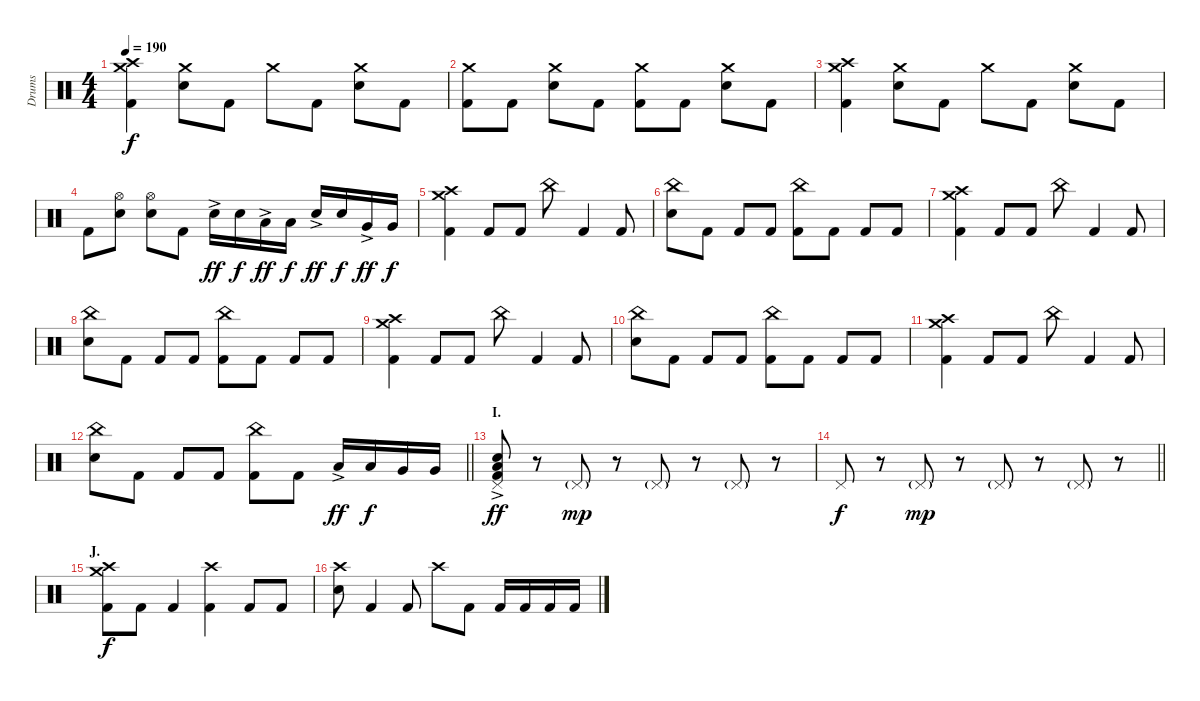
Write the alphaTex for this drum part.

\track ("Drums" "Drums") {instrument percussion}
\staff {score}
\articulation defaults
\ts (4 4)
\tempo 190
\clef neutral
\ks c
("Crash medium (hit)" "Crash high (hit)" "Kick (hit) 2").4{dy f} ("Crash medium (hit)" "Electric Snare (hit)").8 "Kick (hit) 2".8 "Crash medium (hit)".8 "Kick (hit) 2".8 ("Crash medium (hit)" "Electric Snare (hit)").8 "Kick (hit) 2".8 |
("Crash medium (hit)" "Kick (hit) 2").8 "Kick (hit) 2".8 ("Crash medium (hit)" "Electric Snare (hit)").8 "Kick (hit) 2".8 ("Crash medium (hit)" "Kick (hit) 2").8 "Kick (hit) 2".8 ("Crash medium (hit)" "Electric Snare (hit)").8 "Kick (hit) 2".8 |
("Crash medium (hit)" "Crash high (hit)" "Kick (hit) 2").4 ("Crash medium (hit)" "Electric Snare (hit)").8 "Kick (hit) 2".8 "Crash medium (hit)".8 "Kick (hit) 2".8 ("Crash medium (hit)" "Electric Snare (hit)").8 "Kick (hit) 2".8 |
"Kick (hit) 2".8 ("Hi-Hat (open)" "Electric Snare (hit)").8 ("Hi-Hat (open)" "Electric Snare (hit)").8 "Kick (hit) 2".8 "Electric Snare (hit)"{ac}.16{dy ff} "Electric Snare (hit)".16{dy f} "Low Tom (hit)"{ac}.16{dy ff} "Low Tom (hit)".16{dy f} "Electric Snare (hit)"{ac}.16{dy ff} "Electric Snare (hit)".16{dy f} "Very Low Tom (hit)"{ac}.16{dy ff} "Very Low Tom (hit)".16{dy f} |
("Crash medium (hit)" "Crash high (hit)" "Kick (hit) 2").4 "Kick (hit) 2".8 "Kick (hit) 2".8 "China (hit)".8 "Kick (hit) 2".4 "Kick (hit) 2".8 |
("China (hit)" "Electric Snare (hit)").8 "Kick (hit) 2".8 "Kick (hit) 2".8 "Kick (hit) 2".8 ("China (hit)" "Kick (hit) 2").8 "Kick (hit) 2".8 "Kick (hit) 2".8 "Kick (hit) 2".8 |
("Crash medium (hit)" "Crash high (hit)" "Kick (hit) 2").4 "Kick (hit) 2".8 "Kick (hit) 2".8 "China (hit)".8 "Kick (hit) 2".4 "Kick (hit) 2".8 |
("China (hit)" "Electric Snare (hit)").8 "Kick (hit) 2".8 "Kick (hit) 2".8 "Kick (hit) 2".8 ("China (hit)" "Kick (hit) 2").8 "Kick (hit) 2".8 "Kick (hit) 2".8 "Kick (hit) 2".8 |
("Crash medium (hit)" "Crash high (hit)" "Kick (hit) 2").4 "Kick (hit) 2".8 "Kick (hit) 2".8 "China (hit)".8 "Kick (hit) 2".4 "Kick (hit) 2".8 |
("China (hit)" "Electric Snare (hit)").8 "Kick (hit) 2".8 "Kick (hit) 2".8 "Kick (hit) 2".8 ("China (hit)" "Kick (hit) 2").8 "Kick (hit) 2".8 "Kick (hit) 2".8 "Kick (hit) 2".8 |
("Crash medium (hit)" "Crash high (hit)" "Kick (hit) 2").4 "Kick (hit) 2".8 "Kick (hit) 2".8 "China (hit)".8 "Kick (hit) 2".4 "Kick (hit) 2".8 |
\barLineRight lightlight
("China (hit)" "Electric Snare (hit)").8 "Kick (hit) 2".8 "Kick (hit) 2".8 "Kick (hit) 2".8 ("China (hit)" "Kick (hit) 2").8 "Kick (hit) 2".8 "Low Tom (hit)"{ac}.16{dy ff} "Low Tom (hit)".16{dy f} "Very Low Tom (hit)".16 "Very Low Tom (hit)".16 |
\section ("" "I.")
("Pedal Hi-Hat (hit)" "Electric Snare (hit)" "Low Floor Tom (hit)"{ac} "Kick (hit) 2").8{dy ff} r.8 "Pedal Hi-Hat (hit)"{g}.8{dy mp} r.8 "Pedal Hi-Hat (hit)"{g}.8 r.8 "Pedal Hi-Hat (hit)"{g}.8 r.8 |
\barLineRight lightlight "Pedal Hi-Hat (hit)".8{dy f}
r.8 "Pedal Hi-Hat (hit)"{g}.8{dy mp} r.8 "Pedal Hi-Hat (hit)"{g}.8 r.8 "Pedal Hi-Hat (hit)"{g}.8 r.8 |
\section ("" "J.")
("Crash medium (hit)" "Crash high (hit)" "Kick (hit) 2").8{dy f} "Kick (hit) 2".8 "Kick (hit) 2".4 ("Crash high (hit)" "Kick (hit) 2").4 "Kick (hit) 2".8 "Kick (hit) 2".8 |
("Crash high (hit)" "Electric Snare (hit)").8 "Kick (hit) 2".4 "Kick (hit) 2".8 "Crash high (hit)".8 "Kick (hit) 2".8 "Kick (hit) 2".16 "Kick (hit) 2".16 "Kick (hit) 2".16 "Kick (hit) 2".16
